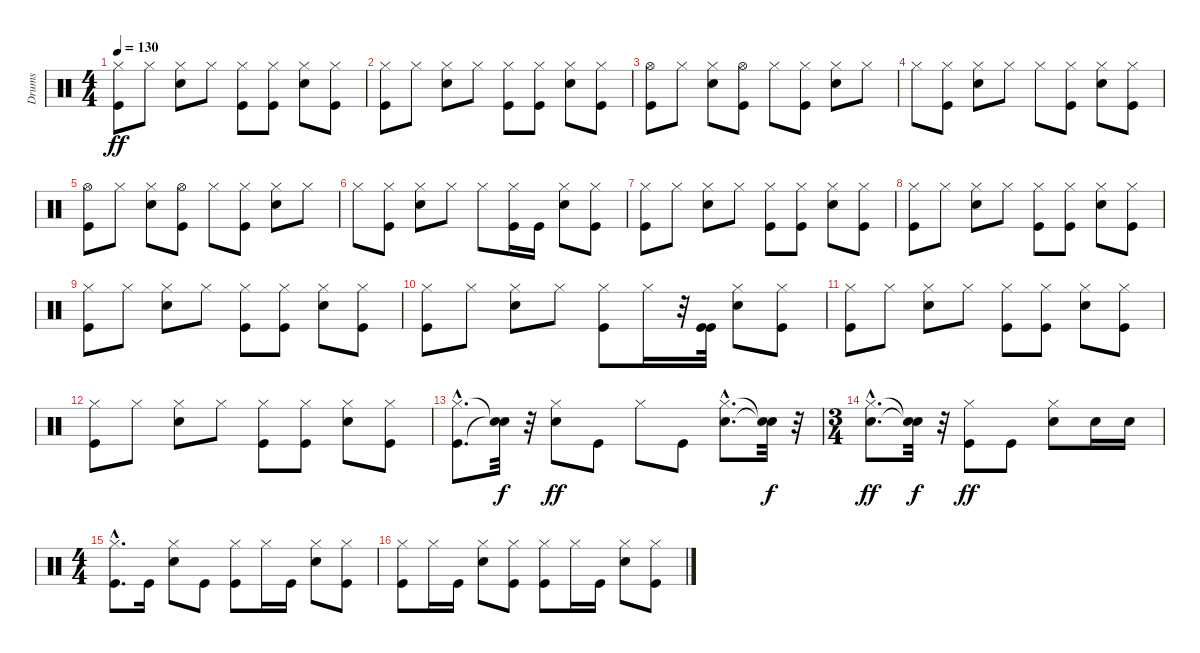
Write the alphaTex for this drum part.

\track ("Drums" "Drums") {instrument percussion}
\staff {score}
\articulation defaults
\ts (4 4)
\tempo 130
\clef neutral
\ks c
("Kick (hit)" "Hi-Hat (closed)").8{dy ff} "Hi-Hat (closed)".8 ("Snare (hit) 2" "Hi-Hat (closed)").8 "Hi-Hat (closed)".8 ("Kick (hit)" "Hi-Hat (closed)").8 ("Kick (hit)" "Hi-Hat (closed)").8 ("Snare (hit) 2" "Hi-Hat (closed)").8 ("Kick (hit)" "Hi-Hat (closed)").8 |
("Kick (hit)" "Hi-Hat (closed)").8 "Hi-Hat (closed)".8 ("Snare (hit) 2" "Hi-Hat (closed)").8 "Hi-Hat (closed)".8 ("Kick (hit)" "Hi-Hat (closed)").8 ("Kick (hit)" "Hi-Hat (closed)").8 ("Snare (hit) 2" "Hi-Hat (closed)").8 ("Kick (hit)" "Hi-Hat (closed)").8 |
("Kick (hit)" "Hi-Hat (open)").8 "Hi-Hat (closed)".8 ("Snare (hit) 2" "Hi-Hat (closed)").8 ("Kick (hit)" "Hi-Hat (open)").8 "Hi-Hat (closed)".8 ("Kick (hit)" "Hi-Hat (closed)").8 ("Snare (hit) 2" "Hi-Hat (closed)").8 "Hi-Hat (closed)".8 |
"Hi-Hat (closed)".8 ("Kick (hit)" "Hi-Hat (closed)").8 ("Snare (hit) 2" "Hi-Hat (closed)").8 "Hi-Hat (closed)".8 "Hi-Hat (closed)".8 ("Kick (hit)" "Hi-Hat (closed)").8 ("Snare (hit) 2" "Hi-Hat (closed)").8 ("Kick (hit)" "Hi-Hat (closed)").8 |
("Kick (hit)" "Hi-Hat (open)").8 "Hi-Hat (closed)".8 ("Snare (hit) 2" "Hi-Hat (closed)").8 ("Kick (hit)" "Hi-Hat (open)").8 "Hi-Hat (closed)".8 ("Kick (hit)" "Hi-Hat (closed)").8 ("Snare (hit) 2" "Hi-Hat (closed)").8 "Hi-Hat (closed)".8 |
"Hi-Hat (closed)".8 ("Kick (hit)" "Hi-Hat (closed)").8 ("Snare (hit) 2" "Hi-Hat (closed)").8 "Hi-Hat (closed)".8 "Hi-Hat (closed)".8 ("Kick (hit)" "Hi-Hat (closed)").16 "Kick (hit)".16 ("Snare (hit) 2" "Hi-Hat (closed)").8 ("Kick (hit)" "Hi-Hat (closed)").8 |
("Kick (hit)" "Hi-Hat (closed)").8 "Hi-Hat (closed)".8 ("Snare (hit) 2" "Hi-Hat (closed)").8 "Hi-Hat (closed)".8 ("Kick (hit)" "Hi-Hat (closed)").8 ("Kick (hit)" "Hi-Hat (closed)").8 ("Snare (hit) 2" "Hi-Hat (closed)").8 ("Kick (hit)" "Hi-Hat (closed)").8 |
("Kick (hit)" "Hi-Hat (closed)").8 "Hi-Hat (closed)".8 ("Snare (hit) 2" "Hi-Hat (closed)").8 "Hi-Hat (closed)".8 ("Kick (hit)" "Hi-Hat (closed)").8 ("Kick (hit)" "Hi-Hat (closed)").8 ("Snare (hit) 2" "Hi-Hat (closed)").8 ("Kick (hit)" "Hi-Hat (closed)").8 |
("Kick (hit)" "Hi-Hat (closed)").8 "Hi-Hat (closed)".8 ("Snare (hit) 2" "Hi-Hat (closed)").8 "Hi-Hat (closed)".8 ("Kick (hit)" "Hi-Hat (closed)").8 ("Kick (hit)" "Hi-Hat (closed)").8 ("Snare (hit) 2" "Hi-Hat (closed)").8 ("Kick (hit)" "Hi-Hat (closed)").8 |
("Kick (hit)" "Hi-Hat (closed)").8 "Hi-Hat (closed)".8 ("Snare (hit) 2" "Hi-Hat (closed)").8 "Hi-Hat (closed)".8 ("Kick (hit)" "Hi-Hat (closed)").8 "Hi-Hat (closed)".16 r.32 ("Kick (hit)" "Kick (hit)").32 ("Snare (hit) 2" "Hi-Hat (closed)").8 ("Kick (hit)" "Hi-Hat (closed)").8 |
("Kick (hit)" "Hi-Hat (closed)").8 "Hi-Hat (closed)".8 ("Snare (hit) 2" "Hi-Hat (closed)").8 "Hi-Hat (closed)".8 ("Kick (hit)" "Hi-Hat (closed)").8 ("Kick (hit)" "Hi-Hat (closed)").8 ("Snare (hit) 2" "Hi-Hat (closed)").8 ("Kick (hit)" "Hi-Hat (closed)").8 |
("Kick (hit)" "Hi-Hat (closed)").8 "Hi-Hat (closed)".8 ("Snare (hit) 2" "Hi-Hat (closed)").8 "Hi-Hat (closed)".8 ("Kick (hit)" "Hi-Hat (closed)").8 ("Kick (hit)" "Hi-Hat (closed)").8 ("Snare (hit) 2" "Hi-Hat (closed)").8 ("Kick (hit)" "Hi-Hat (closed)").8 |
("Kick (hit)"{hac} "Hi-Hat (closed)"{hac}).8{d} ("Snare (hit)"{t} "Snare (hit)"{t}).32{dy f} r.32 ("Snare (hit) 2" "Hi-Hat (closed)").8{dy ff} "Kick (hit)".8 "Hi-Hat (closed)".8 "Kick (hit)".8 ("Snare (hit) 2"{hac} "Hi-Hat (closed)"{hac}).8{d} ("Snare (hit)"{t} "Snare (hit)"{t}).32{dy f} r.32 |
\ts (3 4)
("Snare (hit) 2"{hac} "Hi-Hat (closed)"{hac}).8{d dy ff} ("Snare (hit)"{t} "Snare (hit)"{t}).32{dy f} r.32 ("Kick (hit)" "Hi-Hat (closed)").8{dy ff} "Kick (hit)".8 ("Snare (hit) 2" "Hi-Hat (closed)").8 "Snare (hit) 2".16 "Snare (hit) 2".16 |
\ts (4 4)
("Kick (hit)"{hac} "Hi-Hat (closed)"{hac}).8{d} "Kick (hit)".16 ("Snare (hit) 2" "Hi-Hat (closed)").8 "Kick (hit)".8 ("Kick (hit)" "Hi-Hat (closed)").8 "Hi-Hat (closed)".16 "Kick (hit)".16 ("Snare (hit) 2" "Hi-Hat (closed)").8 ("Kick (hit)" "Hi-Hat (closed)").8 |
("Kick (hit)" "Hi-Hat (closed)").8 "Hi-Hat (closed)".16 "Kick (hit)".16 ("Snare (hit) 2" "Hi-Hat (closed)").8 ("Kick (hit)" "Hi-Hat (closed)").8 ("Kick (hit)" "Hi-Hat (closed)").8 "Hi-Hat (closed)".16 "Kick (hit)".16 ("Snare (hit) 2" "Hi-Hat (closed)").8 ("Kick (hit)" "Hi-Hat (closed)").8
